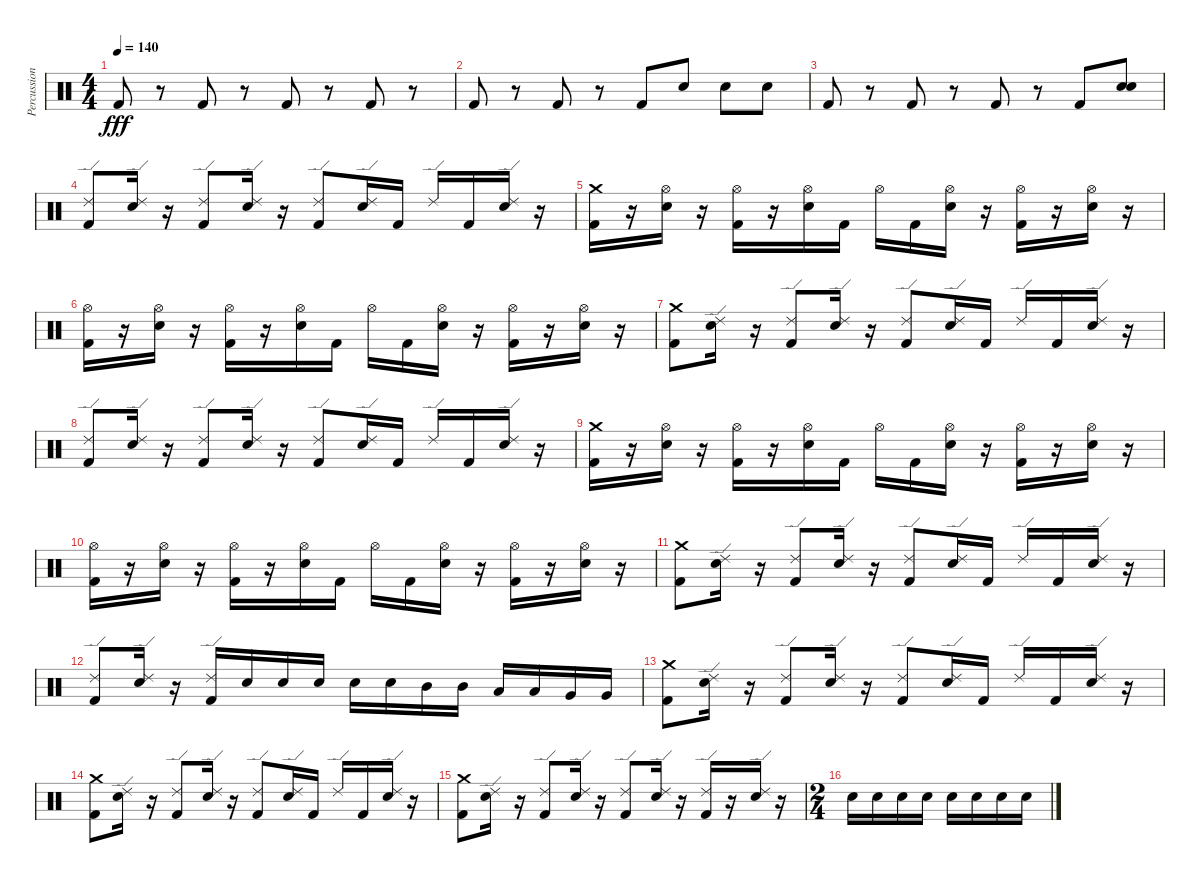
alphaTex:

\track ("Percussion" "Percussion") {instrument percussion}
\staff {score}
\articulation defaults
\ts (4 4)
\tempo 140
\clef neutral
\ks c "Kick (hit) 2".8{dy fff}
r.8 "Kick (hit) 2".8 r.8 "Kick (hit) 2".8 r.8 "Kick (hit) 2".8 r.8 |
"Kick (hit) 2".8 r.8 "Kick (hit) 2".8 r.8 "Kick (hit) 2".8 "Snare (hit) 2".8 "Snare (hit) 2".8 "Snare (hit) 2".8 |
"Kick (hit) 2".8 r.8 "Kick (hit) 2".8 r.8 "Kick (hit) 2".8 r.8 "Kick (hit) 2".8 ("Snare (hit) 2" "Snare (hit) 2").8 |
("Kick (hit) 2" "Ride (edge) 2").8 ("Snare (hit) 2" "Ride (edge) 2").16 r.16 ("Kick (hit) 2" "Ride (edge) 2").8 ("Snare (hit) 2" "Ride (edge) 2").16 r.16 ("Kick (hit) 2" "Ride (edge) 2").8 ("Snare (hit) 2" "Ride (edge) 2").16 "Kick (hit) 2".16 "Ride (edge) 2".16 "Kick (hit) 2".16 ("Snare (hit) 2" "Ride (edge) 2").16 r.16 |
("Kick (hit) 2" "Crash medium (hit)").16 r.16 ("Hi-Hat (open)" "Snare (hit) 2").16 r.16 ("Hi-Hat (open)" "Kick (hit) 2").16 r.16 ("Hi-Hat (open)" "Snare (hit) 2").16 "Kick (hit) 2".16 "Hi-Hat (open)".16 "Kick (hit) 2".16 ("Hi-Hat (open)" "Snare (hit) 2").16 r.16 ("Hi-Hat (open)" "Kick (hit) 2").16 r.16 ("Hi-Hat (open)" "Snare (hit) 2").16 r.16 |
("Hi-Hat (open)" "Kick (hit) 2").16 r.16 ("Hi-Hat (open)" "Snare (hit) 2").16 r.16 ("Hi-Hat (open)" "Kick (hit) 2").16 r.16 ("Hi-Hat (open)" "Snare (hit) 2").16 "Kick (hit) 2".16 "Hi-Hat (open)".16 "Kick (hit) 2".16 ("Hi-Hat (open)" "Snare (hit) 2").16 r.16 ("Hi-Hat (open)" "Kick (hit) 2").16 r.16 ("Hi-Hat (open)" "Snare (hit) 2").16 r.16 |
("Kick (hit) 2" "Crash medium (hit)").8 ("Snare (hit) 2" "Ride (edge) 2").16 r.16 ("Kick (hit) 2" "Ride (edge) 2").8 ("Snare (hit) 2" "Ride (edge) 2").16 r.16 ("Kick (hit) 2" "Ride (edge) 2").8 ("Snare (hit) 2" "Ride (edge) 2").16 "Kick (hit) 2".16 "Ride (edge) 2".16 "Kick (hit) 2".16 ("Snare (hit) 2" "Ride (edge) 2").16 r.16 |
("Kick (hit) 2" "Ride (edge) 2").8 ("Snare (hit) 2" "Ride (edge) 2").16 r.16 ("Kick (hit) 2" "Ride (edge) 2").8 ("Snare (hit) 2" "Ride (edge) 2").16 r.16 ("Kick (hit) 2" "Ride (edge) 2").8 ("Snare (hit) 2" "Ride (edge) 2").16 "Kick (hit) 2".16 "Ride (edge) 2".16 "Kick (hit) 2".16 ("Snare (hit) 2" "Ride (edge) 2").16 r.16 |
("Kick (hit) 2" "Crash medium (hit)").16 r.16 ("Hi-Hat (open)" "Snare (hit) 2").16 r.16 ("Hi-Hat (open)" "Kick (hit) 2").16 r.16 ("Hi-Hat (open)" "Snare (hit) 2").16 "Kick (hit) 2".16 "Hi-Hat (open)".16 "Kick (hit) 2".16 ("Hi-Hat (open)" "Snare (hit) 2").16 r.16 ("Hi-Hat (open)" "Kick (hit) 2").16 r.16 ("Hi-Hat (open)" "Snare (hit) 2").16 r.16 |
("Hi-Hat (open)" "Kick (hit) 2").16 r.16 ("Hi-Hat (open)" "Snare (hit) 2").16 r.16 ("Hi-Hat (open)" "Kick (hit) 2").16 r.16 ("Hi-Hat (open)" "Snare (hit) 2").16 "Kick (hit) 2".16 "Hi-Hat (open)".16 "Kick (hit) 2".16 ("Hi-Hat (open)" "Snare (hit) 2").16 r.16 ("Hi-Hat (open)" "Kick (hit) 2").16 r.16 ("Hi-Hat (open)" "Snare (hit) 2").16 r.16 |
("Kick (hit) 2" "Crash medium (hit)").8 ("Snare (hit) 2" "Ride (edge) 2").16 r.16 ("Kick (hit) 2" "Ride (edge) 2").8 ("Snare (hit) 2" "Ride (edge) 2").16 r.16 ("Kick (hit) 2" "Ride (edge) 2").8 ("Snare (hit) 2" "Ride (edge) 2").16 "Kick (hit) 2".16 "Ride (edge) 2".16 "Kick (hit) 2".16 ("Snare (hit) 2" "Ride (edge) 2").16 r.16 |
("Kick (hit) 2" "Ride (edge) 2").8 ("Snare (hit) 2" "Ride (edge) 2").16 r.16 ("Kick (hit) 2" "Ride (edge) 2").16 "Snare (hit) 2".16 "Snare (hit) 2".16 "Snare (hit) 2".16 "Snare (hit) 2".16 "Snare (hit) 2".16 "Mid Tom (hit)".16 "Mid Tom (hit)".16 "Low Tom (hit)".16 "Low Tom (hit)".16 "Very Low Tom (hit)".16 "Very Low Tom (hit)".16 |
("Kick (hit) 2" "Crash medium (hit)").8 ("Snare (hit) 2" "Ride (edge) 2").16 r.16 ("Kick (hit) 2" "Ride (edge) 2").8 ("Snare (hit) 2" "Ride (edge) 2").16 r.16 ("Kick (hit) 2" "Ride (edge) 2").8 ("Snare (hit) 2" "Ride (edge) 2").16 "Kick (hit) 2".16 "Ride (edge) 2".16 "Kick (hit) 2".16 ("Snare (hit) 2" "Ride (edge) 2").16 r.16 |
("Kick (hit) 2" "Crash medium (hit)").8 ("Snare (hit) 2" "Ride (edge) 2").16 r.16 ("Kick (hit) 2" "Ride (edge) 2").8 ("Snare (hit) 2" "Ride (edge) 2").16 r.16 ("Kick (hit) 2" "Ride (edge) 2").8 ("Snare (hit) 2" "Ride (edge) 2").16 "Kick (hit) 2".16 "Ride (edge) 2".16 "Kick (hit) 2".16 ("Snare (hit) 2" "Ride (edge) 2").16 r.16 |
("Kick (hit) 2" "Crash medium (hit)").8 ("Snare (hit) 2" "Ride (edge) 2").16 r.16 ("Kick (hit) 2" "Ride (edge) 2").8 ("Snare (hit) 2" "Ride (edge) 2").16 r.16 ("Kick (hit) 2" "Ride (edge) 2").8 ("Snare (hit) 2" "Ride (edge) 2").16 r.16 ("Ride (edge) 2" "Kick (hit) 2").16 r.16 ("Snare (hit) 2" "Ride (edge) 2").16 r.16 |
\ts (2 4)
"Snare (hit) 2".16 "Snare (hit) 2".16 "Snare (hit) 2".16 "Snare (hit) 2".16 "Snare (hit) 2".16 "Snare (hit) 2".16 "Snare (hit) 2".16 "Snare (hit) 2".16
